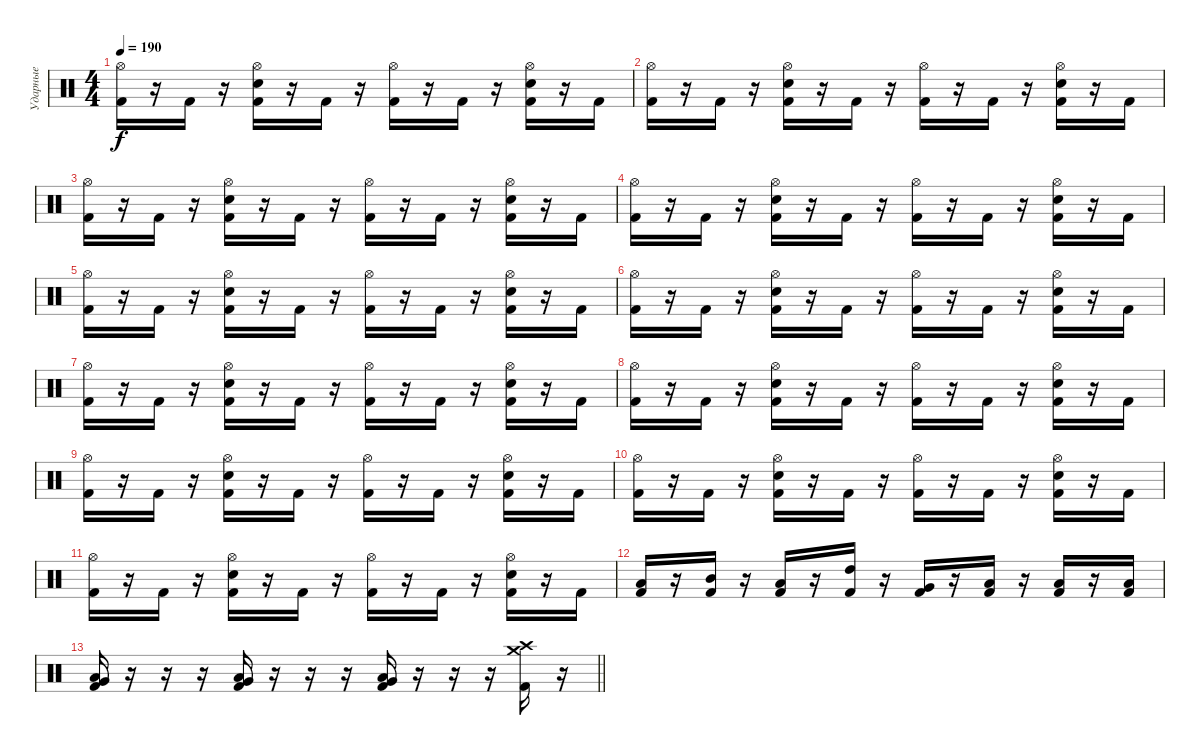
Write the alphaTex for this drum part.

\track ("Ударные" "Ударные") {instrument percussion}
\staff {score}
\articulation defaults
\ts (4 4)
\tempo 190
\clef neutral
\ks c
("Hi-Hat (open)" "Kick (hit) 2").16{dy f} r.16 "Kick (hit) 2".16 r.16 ("Hi-Hat (open)" "Snare (hit) 2" "Kick (hit) 2").16 r.16 "Kick (hit) 2".16 r.16 ("Hi-Hat (open)" "Kick (hit) 2").16 r.16 "Kick (hit) 2".16 r.16 ("Hi-Hat (open)" "Snare (hit) 2" "Kick (hit) 2").16 r.16 "Kick (hit) 2".16 |
("Hi-Hat (open)" "Kick (hit) 2").16 r.16 "Kick (hit) 2".16 r.16 ("Hi-Hat (open)" "Snare (hit) 2" "Kick (hit) 2").16 r.16 "Kick (hit) 2".16 r.16 ("Hi-Hat (open)" "Kick (hit) 2").16 r.16 "Kick (hit) 2".16 r.16 ("Hi-Hat (open)" "Snare (hit) 2" "Kick (hit) 2").16 r.16 "Kick (hit) 2".16 |
("Hi-Hat (open)" "Kick (hit) 2").16 r.16 "Kick (hit) 2".16 r.16 ("Hi-Hat (open)" "Snare (hit) 2" "Kick (hit) 2").16 r.16 "Kick (hit) 2".16 r.16 ("Hi-Hat (open)" "Kick (hit) 2").16 r.16 "Kick (hit) 2".16 r.16 ("Hi-Hat (open)" "Snare (hit) 2" "Kick (hit) 2").16 r.16 "Kick (hit) 2".16 |
("Hi-Hat (open)" "Kick (hit) 2").16 r.16 "Kick (hit) 2".16 r.16 ("Hi-Hat (open)" "Snare (hit) 2" "Kick (hit) 2").16 r.16 "Kick (hit) 2".16 r.16 ("Hi-Hat (open)" "Kick (hit) 2").16 r.16 "Kick (hit) 2".16 r.16 ("Hi-Hat (open)" "Snare (hit) 2" "Kick (hit) 2").16 r.16 "Kick (hit) 2".16 |
("Hi-Hat (open)" "Kick (hit) 2").16 r.16 "Kick (hit) 2".16 r.16 ("Hi-Hat (open)" "Snare (hit) 2" "Kick (hit) 2").16 r.16 "Kick (hit) 2".16 r.16 ("Hi-Hat (open)" "Kick (hit) 2").16 r.16 "Kick (hit) 2".16 r.16 ("Hi-Hat (open)" "Snare (hit) 2" "Kick (hit) 2").16 r.16 "Kick (hit) 2".16 |
("Hi-Hat (open)" "Kick (hit) 2").16 r.16 "Kick (hit) 2".16 r.16 ("Hi-Hat (open)" "Snare (hit) 2" "Kick (hit) 2").16 r.16 "Kick (hit) 2".16 r.16 ("Hi-Hat (open)" "Kick (hit) 2").16 r.16 "Kick (hit) 2".16 r.16 ("Hi-Hat (open)" "Snare (hit) 2" "Kick (hit) 2").16 r.16 "Kick (hit) 2".16 |
("Hi-Hat (open)" "Kick (hit) 2").16 r.16 "Kick (hit) 2".16 r.16 ("Hi-Hat (open)" "Snare (hit) 2" "Kick (hit) 2").16 r.16 "Kick (hit) 2".16 r.16 ("Hi-Hat (open)" "Kick (hit) 2").16 r.16 "Kick (hit) 2".16 r.16 ("Hi-Hat (open)" "Snare (hit) 2" "Kick (hit) 2").16 r.16 "Kick (hit) 2".16 |
("Hi-Hat (open)" "Kick (hit) 2").16 r.16 "Kick (hit) 2".16 r.16 ("Hi-Hat (open)" "Snare (hit) 2" "Kick (hit) 2").16 r.16 "Kick (hit) 2".16 r.16 ("Hi-Hat (open)" "Kick (hit) 2").16 r.16 "Kick (hit) 2".16 r.16 ("Hi-Hat (open)" "Snare (hit) 2" "Kick (hit) 2").16 r.16 "Kick (hit) 2".16 |
("Hi-Hat (open)" "Kick (hit) 2").16 r.16 "Kick (hit) 2".16 r.16 ("Hi-Hat (open)" "Snare (hit) 2" "Kick (hit) 2").16 r.16 "Kick (hit) 2".16 r.16 ("Hi-Hat (open)" "Kick (hit) 2").16 r.16 "Kick (hit) 2".16 r.16 ("Hi-Hat (open)" "Snare (hit) 2" "Kick (hit) 2").16 r.16 "Kick (hit) 2".16 |
("Hi-Hat (open)" "Kick (hit) 2").16 r.16 "Kick (hit) 2".16 r.16 ("Hi-Hat (open)" "Snare (hit) 2" "Kick (hit) 2").16 r.16 "Kick (hit) 2".16 r.16 ("Hi-Hat (open)" "Kick (hit) 2").16 r.16 "Kick (hit) 2".16 r.16 ("Hi-Hat (open)" "Snare (hit) 2" "Kick (hit) 2").16 r.16 "Kick (hit) 2".16 |
("Hi-Hat (open)" "Kick (hit) 2").16 r.16 "Kick (hit) 2".16 r.16 ("Hi-Hat (open)" "Snare (hit) 2" "Kick (hit) 2").16 r.16 "Kick (hit) 2".16 r.16 ("Hi-Hat (open)" "Kick (hit) 2").16 r.16 "Kick (hit) 2".16 r.16 ("Hi-Hat (open)" "Snare (hit) 2" "Kick (hit) 2").16 r.16 "Kick (hit) 2".16 |
("Low Tom (hit)" "Kick (hit) 2").16 r.16 ("Mid Tom (hit)" "Kick (hit) 2").16 r.16 ("Low Tom (hit)" "Kick (hit) 2").16 r.16 ("High Tom (hit)" "Kick (hit) 2").16 r.16 ("Very Low Tom (hit)" "Kick (hit) 2").16 r.16 ("Low Floor Tom (hit)" "Kick (hit) 2").16 r.16 ("Low Floor Tom (hit)" "Kick (hit) 2").16 r.16 ("Low Tom (hit)" "Kick (hit) 2").16 |
\barLineRight lightlight
("Low Floor Tom (hit)" "Very Low Tom (hit)" "Kick (hit) 2").16 r.16 r.16 r.16 ("Low Floor Tom (hit)" "Very Low Tom (hit)" "Kick (hit) 2").16 r.16 r.16 r.16 ("Very Low Tom (hit)" "Low Tom (hit)" "Kick (hit) 2").16 r.16 r.16 r.16 ("Crash medium (hit)" "Crash high (hit)" "Kick (hit) 2").16 r.16
